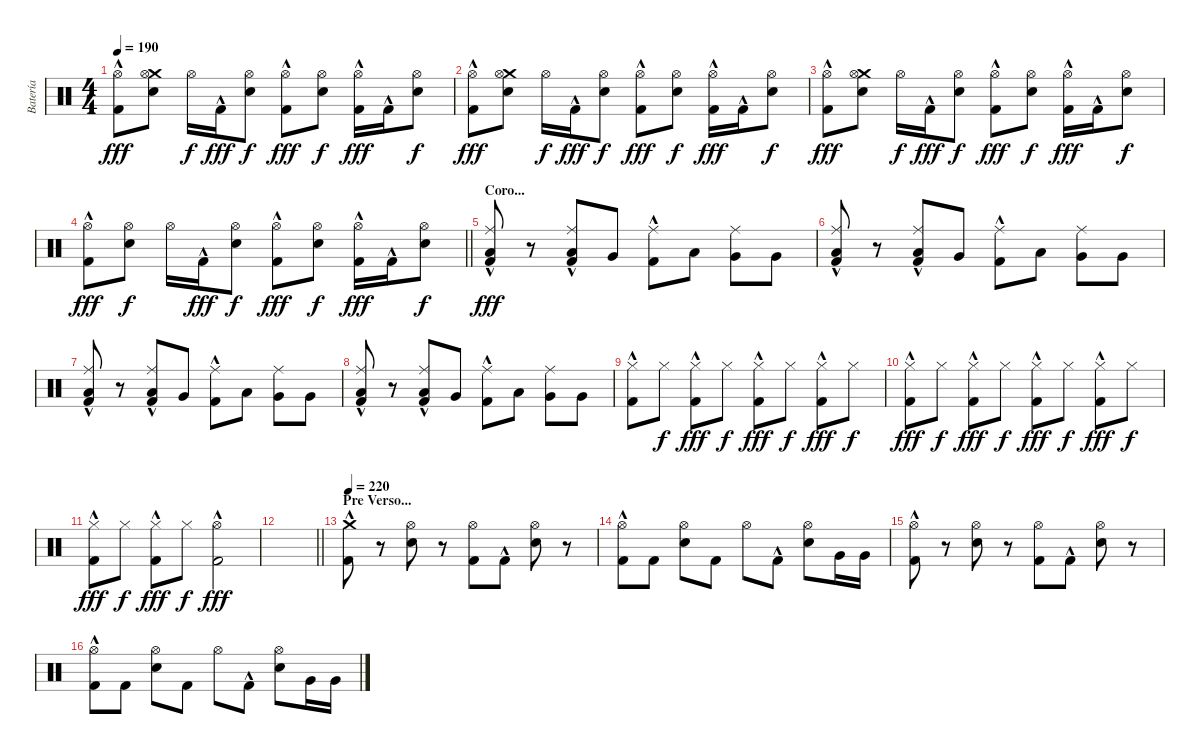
\track ("Batería" "Batería") {instrument percussion}
\staff {score}
\articulation defaults
\ts (4 4)
\tempo 190
\clef neutral
\ks c
("Hi-Hat (open)" "Kick (hit) 2"{hac}).8{dy fff} ("Crash medium (hit)" "Snare (hit) 2" "Hi-Hat (open)").8 "Hi-Hat (open)".16{dy f} "Kick (hit) 2"{hac}.16{dy fff} ("Snare (hit) 2" "Hi-Hat (open)").8{dy f} ("Hi-Hat (open)" "Kick (hit) 2"{hac}).8{dy fff} ("Snare (hit) 2" "Hi-Hat (open)").8{dy f} ("Hi-Hat (open)" "Kick (hit) 2"{hac}).16{dy fff} "Kick (hit) 2"{hac}.16 ("Snare (hit) 2" "Hi-Hat (open)").8{dy f} |
("Hi-Hat (open)" "Kick (hit) 2"{hac}).8{dy fff} ("Crash medium (hit)" "Snare (hit) 2" "Hi-Hat (open)").8 "Hi-Hat (open)".16{dy f} "Kick (hit) 2"{hac}.16{dy fff} ("Snare (hit) 2" "Hi-Hat (open)").8{dy f} ("Hi-Hat (open)" "Kick (hit) 2"{hac}).8{dy fff} ("Snare (hit) 2" "Hi-Hat (open)").8{dy f} ("Hi-Hat (open)" "Kick (hit) 2"{hac}).16{dy fff} "Kick (hit) 2"{hac}.16 ("Snare (hit) 2" "Hi-Hat (open)").8{dy f} |
("Hi-Hat (open)" "Kick (hit) 2"{hac}).8{dy fff} ("Crash medium (hit)" "Snare (hit) 2" "Hi-Hat (open)").8 "Hi-Hat (open)".16{dy f} "Kick (hit) 2"{hac}.16{dy fff} ("Snare (hit) 2" "Hi-Hat (open)").8{dy f} ("Hi-Hat (open)" "Kick (hit) 2"{hac}).8{dy fff} ("Snare (hit) 2" "Hi-Hat (open)").8{dy f} ("Hi-Hat (open)" "Kick (hit) 2"{hac}).16{dy fff} "Kick (hit) 2"{hac}.16 ("Snare (hit) 2" "Hi-Hat (open)").8{dy f} |
\barLineRight lightlight
("Hi-Hat (open)" "Kick (hit) 2"{hac}).8{dy fff} ("Snare (hit) 2" "Hi-Hat (open)").8{dy f} "Hi-Hat (open)".16 "Kick (hit) 2"{hac}.16{dy fff} ("Snare (hit) 2" "Hi-Hat (open)").8{dy f} ("Hi-Hat (open)" "Kick (hit) 2"{hac}).8{dy fff} ("Snare (hit) 2" "Hi-Hat (open)").8{dy f} ("Hi-Hat (open)" "Kick (hit) 2"{hac}).16{dy fff} "Kick (hit) 2"{hac}.16 ("Snare (hit) 2" "Hi-Hat (open)").8{dy f} |
\section ("" "Coro...")
("Ride (middle)" "Low Floor Tom (hit)" "Kick (hit) 2"{hac}).8{dy fff} r.8 ("Ride (middle)" "Low Floor Tom (hit)" "Kick (hit) 2"{hac}).8 "Very Low Tom (hit)".8 ("Ride (middle)" "Kick (hit) 2"{hac}).8 "Low Floor Tom (hit)".8 ("Ride (middle)" "Very Low Tom (hit)").8 "Very Low Tom (hit)".8 |
("Ride (middle)" "Low Floor Tom (hit)" "Kick (hit) 2"{hac}).8 r.8 ("Ride (middle)" "Low Floor Tom (hit)" "Kick (hit) 2"{hac}).8 "Very Low Tom (hit)".8 ("Ride (middle)" "Kick (hit) 2"{hac}).8 "Low Floor Tom (hit)".8 ("Ride (middle)" "Very Low Tom (hit)").8 "Very Low Tom (hit)".8 |
("Ride (middle)" "Low Floor Tom (hit)" "Kick (hit) 2"{hac}).8 r.8 ("Ride (middle)" "Low Floor Tom (hit)" "Kick (hit) 2"{hac}).8 "Very Low Tom (hit)".8 ("Ride (middle)" "Kick (hit) 2"{hac}).8 "Low Floor Tom (hit)".8 ("Ride (middle)" "Very Low Tom (hit)").8 "Very Low Tom (hit)".8 |
("Ride (middle)" "Low Floor Tom (hit)" "Kick (hit) 2"{hac}).8 r.8 ("Ride (middle)" "Low Floor Tom (hit)" "Kick (hit) 2"{hac}).8 "Very Low Tom (hit)".8 ("Ride (middle)" "Kick (hit) 2"{hac}).8 "Low Floor Tom (hit)".8 ("Ride (middle)" "Very Low Tom (hit)").8 "Very Low Tom (hit)".8 |
("Hi-Hat (closed)" "Kick (hit) 2"{hac}).8 "Hi-Hat (closed)".8{dy f} ("Hi-Hat (closed)" "Kick (hit) 2"{hac}).8{dy fff} "Hi-Hat (closed)".8{dy f} ("Hi-Hat (closed)" "Kick (hit) 2"{hac}).8{dy fff} "Hi-Hat (closed)".8{dy f} ("Hi-Hat (closed)" "Kick (hit) 2"{hac}).8{dy fff} "Hi-Hat (closed)".8{dy f} |
("Hi-Hat (closed)" "Kick (hit) 2"{hac}).8{dy fff} "Hi-Hat (closed)".8{dy f} ("Hi-Hat (closed)" "Kick (hit) 2"{hac}).8{dy fff} "Hi-Hat (closed)".8{dy f} ("Hi-Hat (closed)" "Kick (hit) 2"{hac}).8{dy fff} "Hi-Hat (closed)".8{dy f} ("Hi-Hat (closed)" "Kick (hit) 2"{hac}).8{dy fff} "Hi-Hat (closed)".8{dy f} |
("Hi-Hat (closed)" "Kick (hit) 2"{hac}).8{dy fff} "Hi-Hat (closed)".8{dy f} ("Hi-Hat (closed)" "Kick (hit) 2"{hac}).8{dy fff} "Hi-Hat (closed)".8{dy f} ("Hi-Hat (open)" "Kick (hit) 2"{hac}).2{dy fff} |
\barLineRight lightlight
|
\section ("" "Pre Verso...")
\tempo 220
("Crash medium (hit)" "Kick (hit) 2"{hac}).8 r.8 ("Hi-Hat (open)" "Snare (hit) 2").8 r.8 ("Hi-Hat (open)" "Kick (hit) 2").8 "Kick (hit) 2"{hac}.8 ("Hi-Hat (open)" "Snare (hit) 2").8 r.8 |
("Hi-Hat (open)" "Kick (hit) 2"{hac}).8 "Kick (hit) 2".8 ("Hi-Hat (open)" "Snare (hit) 2").8 "Kick (hit) 2".8 "Hi-Hat (open)".8 "Kick (hit) 2"{hac}.8 ("Hi-Hat (open)" "Snare (hit) 2").8 "Very Low Tom (hit)".16 "Very Low Tom (hit)".16 |
("Hi-Hat (open)" "Kick (hit) 2"{hac}).8 r.8 ("Hi-Hat (open)" "Snare (hit) 2").8 r.8 ("Hi-Hat (open)" "Kick (hit) 2").8 "Kick (hit) 2"{hac}.8 ("Hi-Hat (open)" "Snare (hit) 2").8 r.8 |
("Hi-Hat (open)" "Kick (hit) 2"{hac}).8 "Kick (hit) 2".8 ("Hi-Hat (open)" "Snare (hit) 2").8 "Kick (hit) 2".8 "Hi-Hat (open)".8 "Kick (hit) 2"{hac}.8 ("Hi-Hat (open)" "Snare (hit) 2").8 "Very Low Tom (hit)".16 "Very Low Tom (hit)".16
